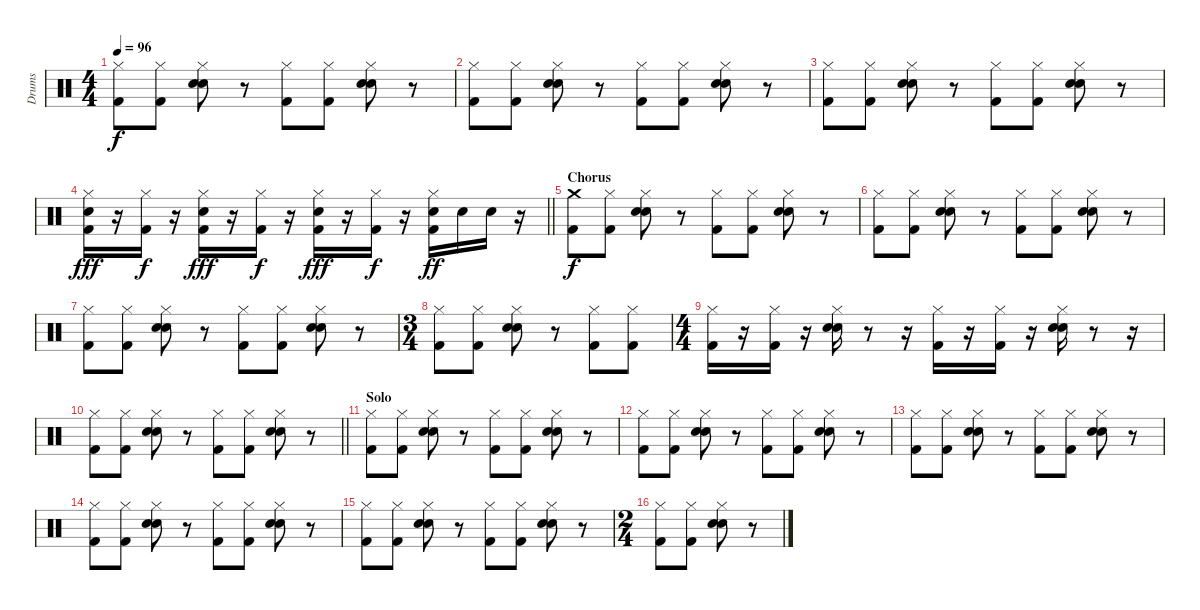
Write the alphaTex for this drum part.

\track ("Drums" "Drums") {instrument percussion}
\staff {score}
\articulation defaults
\ts (4 4)
\tempo 96
\clef neutral
\ks c
("Hi-Hat (closed)" "Kick (hit) 2").8{dy f} ("Hi-Hat (closed)" "Kick (hit) 2").8 ("Hi-Hat (closed)" "Hand Clap (hit)" "Snare (hit) 2").8 r.8 ("Hi-Hat (closed)" "Kick (hit) 2").8 ("Hi-Hat (closed)" "Kick (hit) 2").8 ("Hi-Hat (closed)" "Hand Clap (hit)" "Snare (hit) 2").8 r.8 |
("Hi-Hat (closed)" "Kick (hit) 2").8 ("Hi-Hat (closed)" "Kick (hit) 2").8 ("Hi-Hat (closed)" "Hand Clap (hit)" "Snare (hit) 2").8 r.8 ("Hi-Hat (closed)" "Kick (hit) 2").8 ("Hi-Hat (closed)" "Kick (hit) 2").8 ("Hi-Hat (closed)" "Hand Clap (hit)" "Snare (hit) 2").8 r.8 |
("Hi-Hat (closed)" "Kick (hit) 2").8 ("Hi-Hat (closed)" "Kick (hit) 2").8 ("Hi-Hat (closed)" "Hand Clap (hit)" "Snare (hit) 2").8 r.8 ("Hi-Hat (closed)" "Kick (hit) 2").8 ("Hi-Hat (closed)" "Kick (hit) 2").8 ("Hi-Hat (closed)" "Hand Clap (hit)" "Snare (hit) 2").8 r.8 |
\barLineRight lightlight
("Hi-Hat (closed)" "Snare (hit) 2" "Kick (hit) 2").16{dy fff} r.16 ("Hi-Hat (closed)" "Kick (hit) 2").16{dy f} r.16 ("Hi-Hat (closed)" "Snare (hit) 2" "Kick (hit) 2").16{dy fff} r.16 ("Hi-Hat (closed)" "Kick (hit) 2").16{dy f} r.16 ("Hi-Hat (closed)" "Snare (hit) 2" "Kick (hit) 2").16{dy fff} r.16 ("Hi-Hat (closed)" "Kick (hit) 2").16{dy f} r.16 ("Hi-Hat (closed)" "Snare (hit) 2" "Kick (hit) 2").16{dy ff} "Snare (hit) 2".16 "Snare (hit) 2".16 r.16 |
\section ("" "Chorus")
("Crash medium (hit)" "Kick (hit) 2").8{dy f} ("Hi-Hat (closed)" "Kick (hit) 2").8 ("Hi-Hat (closed)" "Hand Clap (hit)" "Snare (hit) 2").8 r.8 ("Hi-Hat (closed)" "Kick (hit) 2").8 ("Hi-Hat (closed)" "Kick (hit) 2").8 ("Hi-Hat (closed)" "Hand Clap (hit)" "Snare (hit) 2").8 r.8 |
("Hi-Hat (closed)" "Kick (hit) 2").8 ("Hi-Hat (closed)" "Kick (hit) 2").8 ("Hi-Hat (closed)" "Hand Clap (hit)" "Snare (hit) 2").8 r.8 ("Hi-Hat (closed)" "Kick (hit) 2").8 ("Hi-Hat (closed)" "Kick (hit) 2").8 ("Hi-Hat (closed)" "Hand Clap (hit)" "Snare (hit) 2").8 r.8 |
("Hi-Hat (closed)" "Kick (hit) 2").8 ("Hi-Hat (closed)" "Kick (hit) 2").8 ("Hi-Hat (closed)" "Hand Clap (hit)" "Snare (hit) 2").8 r.8 ("Hi-Hat (closed)" "Kick (hit) 2").8 ("Hi-Hat (closed)" "Kick (hit) 2").8 ("Hi-Hat (closed)" "Hand Clap (hit)" "Snare (hit) 2").8 r.8 |
\ts (3 4)
("Hi-Hat (closed)" "Kick (hit) 2").8 ("Hi-Hat (closed)" "Kick (hit) 2").8 ("Hi-Hat (closed)" "Hand Clap (hit)" "Snare (hit) 2").8 r.8 ("Hi-Hat (closed)" "Kick (hit) 2").8 ("Hi-Hat (closed)" "Kick (hit) 2").8 |
\ts (4 4)
("Kick (hit) 2" "Hi-Hat (closed)").16 r.16 ("Kick (hit) 2" "Hi-Hat (closed)").16 r.16 ("Hi-Hat (closed)" "Snare (hit) 2" "Hand Clap (hit)").16 r.8 r.16 ("Kick (hit) 2" "Hi-Hat (closed)").16 r.16 ("Kick (hit) 2" "Hi-Hat (closed)").16 r.16 ("Hand Clap (hit)" "Snare (hit) 2" "Hi-Hat (closed)").16 r.8 r.16 |
\barLineRight lightlight
("Hi-Hat (closed)" "Kick (hit) 2").8 ("Hi-Hat (closed)" "Kick (hit) 2").8 ("Hi-Hat (closed)" "Hand Clap (hit)" "Snare (hit) 2").8 r.8 ("Hi-Hat (closed)" "Kick (hit) 2").8 ("Hi-Hat (closed)" "Kick (hit) 2").8 ("Hi-Hat (closed)" "Hand Clap (hit)" "Snare (hit) 2").8 r.8 |
\section ("" "Solo")
("Hi-Hat (closed)" "Kick (hit) 2").8 ("Hi-Hat (closed)" "Kick (hit) 2").8 ("Hi-Hat (closed)" "Hand Clap (hit)" "Snare (hit) 2").8 r.8 ("Hi-Hat (closed)" "Kick (hit) 2").8 ("Hi-Hat (closed)" "Kick (hit) 2").8 ("Hi-Hat (closed)" "Hand Clap (hit)" "Snare (hit) 2").8 r.8 |
("Hi-Hat (closed)" "Kick (hit) 2").8 ("Hi-Hat (closed)" "Kick (hit) 2").8 ("Hi-Hat (closed)" "Hand Clap (hit)" "Snare (hit) 2").8 r.8 ("Hi-Hat (closed)" "Kick (hit) 2").8 ("Hi-Hat (closed)" "Kick (hit) 2").8 ("Hi-Hat (closed)" "Hand Clap (hit)" "Snare (hit) 2").8 r.8 |
("Hi-Hat (closed)" "Kick (hit) 2").8 ("Hi-Hat (closed)" "Kick (hit) 2").8 ("Hi-Hat (closed)" "Hand Clap (hit)" "Snare (hit) 2").8 r.8 ("Hi-Hat (closed)" "Kick (hit) 2").8 ("Hi-Hat (closed)" "Kick (hit) 2").8 ("Hi-Hat (closed)" "Hand Clap (hit)" "Snare (hit) 2").8 r.8 |
("Hi-Hat (closed)" "Kick (hit) 2").8 ("Hi-Hat (closed)" "Kick (hit) 2").8 ("Hi-Hat (closed)" "Hand Clap (hit)" "Snare (hit) 2").8 r.8 ("Hi-Hat (closed)" "Kick (hit) 2").8 ("Hi-Hat (closed)" "Kick (hit) 2").8 ("Hi-Hat (closed)" "Hand Clap (hit)" "Snare (hit) 2").8 r.8 |
("Hi-Hat (closed)" "Kick (hit) 2").8 ("Hi-Hat (closed)" "Kick (hit) 2").8 ("Hi-Hat (closed)" "Hand Clap (hit)" "Snare (hit) 2").8 r.8 ("Hi-Hat (closed)" "Kick (hit) 2").8 ("Hi-Hat (closed)" "Kick (hit) 2").8 ("Hi-Hat (closed)" "Hand Clap (hit)" "Snare (hit) 2").8 r.8 |
\ts (2 4)
("Hi-Hat (closed)" "Kick (hit) 2").8 ("Hi-Hat (closed)" "Kick (hit) 2").8 ("Hi-Hat (closed)" "Hand Clap (hit)" "Snare (hit) 2").8 r.8
